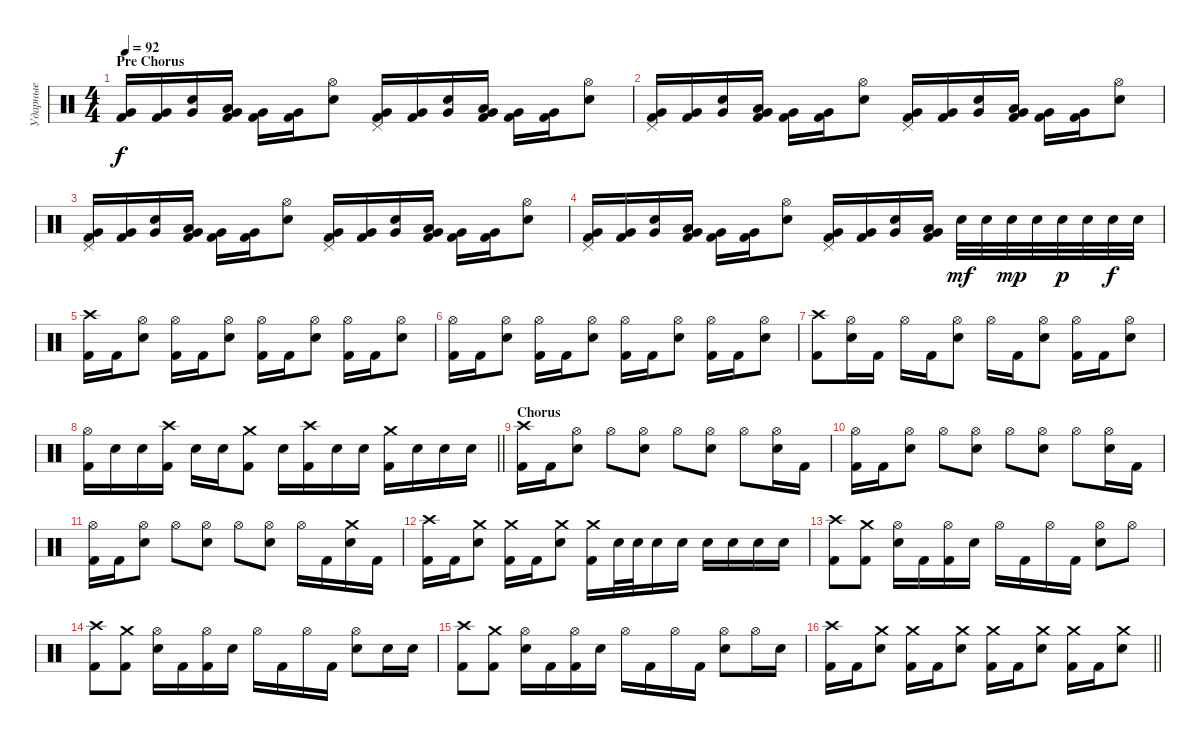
\track ("Ударные" "Ударные") {instrument percussion}
\staff {score}
\articulation defaults
\ts (4 4)
\section ("" "Pre Chorus")
\tempo 92
\clef neutral
\ks c
("Very Low Tom (hit)" "Kick (hit) 2").16{dy f} ("Very Low Tom (hit)" "Kick (hit) 2").16 ("Electric Snare (hit)" "Very Low Tom (hit)").16 ("Low Tom (hit)" "Very Low Tom (hit)" "Kick (hit) 2").16 ("Very Low Tom (hit)" "Kick (hit) 2").16 ("Very Low Tom (hit)" "Kick (hit) 2").16 ("Hi-Hat (open)" "Snare (hit) 2").8 ("Pedal Hi-Hat (hit)" "Very Low Tom (hit)" "Kick (hit) 2").16 ("Very Low Tom (hit)" "Kick (hit) 2").16 ("Electric Snare (hit)" "Very Low Tom (hit)").16 ("Low Tom (hit)" "Very Low Tom (hit)" "Kick (hit) 2").16 ("Very Low Tom (hit)" "Kick (hit) 2").16 ("Very Low Tom (hit)" "Kick (hit) 2").16 ("Hi-Hat (open)" "Snare (hit) 2").8 |
("Pedal Hi-Hat (hit)" "Very Low Tom (hit)" "Kick (hit) 2").16 ("Very Low Tom (hit)" "Kick (hit) 2").16 ("Electric Snare (hit)" "Very Low Tom (hit)").16 ("Low Tom (hit)" "Very Low Tom (hit)" "Kick (hit) 2").16 ("Very Low Tom (hit)" "Kick (hit) 2").16 ("Very Low Tom (hit)" "Kick (hit) 2").16 ("Hi-Hat (open)" "Electric Snare (hit)").8 ("Pedal Hi-Hat (hit)" "Very Low Tom (hit)" "Kick (hit) 2").16 ("Very Low Tom (hit)" "Kick (hit) 2").16 ("Electric Snare (hit)" "Very Low Tom (hit)").16 ("Low Tom (hit)" "Very Low Tom (hit)" "Kick (hit) 2").16 ("Very Low Tom (hit)" "Kick (hit) 2").16 ("Very Low Tom (hit)" "Kick (hit) 2").16 ("Hi-Hat (open)" "Electric Snare (hit)").8 |
("Pedal Hi-Hat (hit)" "Very Low Tom (hit)" "Kick (hit) 2").16 ("Very Low Tom (hit)" "Kick (hit) 2").16 ("Electric Snare (hit)" "Very Low Tom (hit)").16 ("Low Tom (hit)" "Very Low Tom (hit)" "Kick (hit) 2").16 ("Very Low Tom (hit)" "Kick (hit) 2").16 ("Very Low Tom (hit)" "Kick (hit) 2").16 ("Hi-Hat (open)" "Electric Snare (hit)").8 ("Pedal Hi-Hat (hit)" "Very Low Tom (hit)" "Kick (hit) 2").16 ("Very Low Tom (hit)" "Kick (hit) 2").16 ("Electric Snare (hit)" "Very Low Tom (hit)").16 ("Low Tom (hit)" "Very Low Tom (hit)" "Kick (hit) 2").16 ("Very Low Tom (hit)" "Kick (hit) 2").16 ("Very Low Tom (hit)" "Kick (hit) 2").16 ("Hi-Hat (open)" "Electric Snare (hit)").8 |
("Pedal Hi-Hat (hit)" "Very Low Tom (hit)" "Kick (hit) 2").16 ("Very Low Tom (hit)" "Kick (hit) 2").16 ("Electric Snare (hit)" "Very Low Tom (hit)").16 ("Low Tom (hit)" "Very Low Tom (hit)" "Kick (hit) 2").16 ("Very Low Tom (hit)" "Kick (hit) 2").16 ("Very Low Tom (hit)" "Kick (hit) 2").16 ("Hi-Hat (open)" "Electric Snare (hit)").8 ("Pedal Hi-Hat (hit)" "Very Low Tom (hit)" "Kick (hit) 2").16 ("Very Low Tom (hit)" "Kick (hit) 2").16 ("Electric Snare (hit)" "Very Low Tom (hit)").16 ("Low Tom (hit)" "Very Low Tom (hit)" "Kick (hit) 2").16 "Electric Snare (hit)".32{dy mf} "Electric Snare (hit)".32 "Electric Snare (hit)".32{dy mp} "Electric Snare (hit)".32 "Electric Snare (hit)".32{dy p} "Electric Snare (hit)".32 "Electric Snare (hit)".32{dy f} "Electric Snare (hit)".32 |
("Crash high (hit)" "Kick (hit) 2").16 "Kick (hit) 2".16 ("Hi-Hat (open)" "Electric Snare (hit)").8 ("Hi-Hat (open)" "Kick (hit) 2").16 "Kick (hit) 2".16 ("Hi-Hat (open)" "Electric Snare (hit)").8 ("Hi-Hat (open)" "Kick (hit) 2").16 "Kick (hit) 2".16 ("Hi-Hat (open)" "Electric Snare (hit)").8 ("Hi-Hat (open)" "Kick (hit) 2").16 "Kick (hit) 2".16 ("Hi-Hat (open)" "Electric Snare (hit)").8 |
("Hi-Hat (open)" "Kick (hit) 2").16 "Kick (hit) 2".16 ("Hi-Hat (open)" "Electric Snare (hit)").8 ("Hi-Hat (open)" "Kick (hit) 2").16 "Kick (hit) 2".16 ("Hi-Hat (open)" "Electric Snare (hit)").8 ("Hi-Hat (open)" "Kick (hit) 2").16 "Kick (hit) 2".16 ("Hi-Hat (open)" "Electric Snare (hit)").8 ("Hi-Hat (open)" "Kick (hit) 2").16 "Kick (hit) 2".16 ("Hi-Hat (open)" "Electric Snare (hit)").8 |
("Crash high (hit)" "Kick (hit) 2").8 ("Hi-Hat (open)" "Electric Snare (hit)").16 "Kick (hit) 2".16 "Hi-Hat (open)".16 "Kick (hit) 2".16 ("Hi-Hat (open)" "Electric Snare (hit)").8 "Hi-Hat (open)".16 "Kick (hit) 2".16 ("Hi-Hat (open)" "Electric Snare (hit)").8 ("Hi-Hat (open)" "Kick (hit) 2").16 "Kick (hit) 2".16 ("Hi-Hat (open)" "Electric Snare (hit)").8 |
\barLineRight lightlight
("Hi-Hat (open)" "Kick (hit) 2").16 "Electric Snare (hit)".16 "Electric Snare (hit)".16 ("Crash high (hit)" "Kick (hit) 2").16 "Electric Snare (hit)".16 "Electric Snare (hit)".16 ("Crash medium (hit)" "Kick (hit) 2").8 "Electric Snare (hit)".16 ("Crash high (hit)" "Kick (hit) 2").16 "Electric Snare (hit)".16 "Electric Snare (hit)".16 ("Crash medium (hit)" "Kick (hit) 2").16 "Electric Snare (hit)".16 "Electric Snare (hit)".16 "Electric Snare (hit)".16 |
\section ("" "Chorus")
("Crash high (hit)" "Kick (hit) 2").16 "Kick (hit) 2".16 ("Hi-Hat (open)" "Electric Snare (hit)").8 "Hi-Hat (open)".8 ("Hi-Hat (open)" "Electric Snare (hit)").8 "Hi-Hat (open)".8 ("Hi-Hat (open)" "Electric Snare (hit)").8 "Hi-Hat (open)".8 ("Hi-Hat (open)" "Electric Snare (hit)").16 "Kick (hit) 2".16 |
("Hi-Hat (open)" "Kick (hit) 2").16 "Kick (hit) 2".16 ("Hi-Hat (open)" "Electric Snare (hit)").8 "Hi-Hat (open)".8 ("Hi-Hat (open)" "Electric Snare (hit)").8 "Hi-Hat (open)".8 ("Hi-Hat (open)" "Electric Snare (hit)").8 "Hi-Hat (open)".8 ("Hi-Hat (open)" "Electric Snare (hit)").16 "Kick (hit) 2".16 |
("Hi-Hat (open)" "Kick (hit) 2").16 "Kick (hit) 2".16 ("Hi-Hat (open)" "Electric Snare (hit)").8 "Hi-Hat (open)".8 ("Hi-Hat (open)" "Electric Snare (hit)").8 "Hi-Hat (open)".8 ("Hi-Hat (open)" "Electric Snare (hit)").8 "Hi-Hat (open)".16 "Kick (hit) 2".16 ("Crash medium (hit)" "Electric Snare (hit)").16 "Kick (hit) 2".16 |
("Crash high (hit)" "Kick (hit) 2").16 "Kick (hit) 2".16 ("Crash medium (hit)" "Electric Snare (hit)").8 ("Crash medium (hit)" "Kick (hit) 2").16 "Kick (hit) 2".16 ("Crash medium (hit)" "Electric Snare (hit)").8 ("Crash medium (hit)" "Kick (hit) 2").16 "Electric Snare (hit)".32 "Electric Snare (hit)".32 "Electric Snare (hit)".16 "Electric Snare (hit)".16 "Electric Snare (hit)".16 "Electric Snare (hit)".16 "Electric Snare (hit)".16 "Electric Snare (hit)".16 |
("Crash high (hit)" "Kick (hit) 2").8 ("Crash medium (hit)" "Kick (hit) 2").8 ("Hi-Hat (open)" "Electric Snare (hit)").16 "Kick (hit) 2".16 ("Hi-Hat (open)" "Kick (hit) 2").16 "Electric Snare (hit)".16 "Hi-Hat (open)".16 "Kick (hit) 2".16 "Hi-Hat (open)".16 "Kick (hit) 2".16 ("Hi-Hat (open)" "Electric Snare (hit)").8 "Hi-Hat (open)".8 |
("Crash high (hit)" "Kick (hit) 2").8 ("Crash medium (hit)" "Kick (hit) 2").8 ("Hi-Hat (open)" "Electric Snare (hit)").16 "Kick (hit) 2".16 ("Hi-Hat (open)" "Kick (hit) 2").16 "Electric Snare (hit)".16 "Hi-Hat (open)".16 "Kick (hit) 2".16 "Hi-Hat (open)".16 "Kick (hit) 2".16 ("Hi-Hat (open)" "Electric Snare (hit)").8 "Electric Snare (hit)".16 "Electric Snare (hit)".16 |
("Crash high (hit)" "Kick (hit) 2").8 ("Crash medium (hit)" "Kick (hit) 2").8 ("Hi-Hat (open)" "Electric Snare (hit)").16 "Kick (hit) 2".16 ("Hi-Hat (open)" "Kick (hit) 2").16 "Electric Snare (hit)".16 "Hi-Hat (open)".16 "Kick (hit) 2".16 "Hi-Hat (open)".16 "Kick (hit) 2".16 ("Hi-Hat (open)" "Electric Snare (hit)").8 "Hi-Hat (open)".16 "Electric Snare (hit)".16 |
\barLineRight lightlight
("Crash high (hit)" "Kick (hit) 2").16 "Kick (hit) 2".16 ("Crash medium (hit)" "Electric Snare (hit)").8 ("Crash medium (hit)" "Kick (hit) 2").16 "Kick (hit) 2".16 ("Crash medium (hit)" "Electric Snare (hit)").8 ("Crash medium (hit)" "Kick (hit) 2").16 "Kick (hit) 2".16 ("Crash medium (hit)" "Electric Snare (hit)").8 ("Crash medium (hit)" "Kick (hit) 2").16 "Kick (hit) 2".16 ("Crash medium (hit)" "Electric Snare (hit)").8
